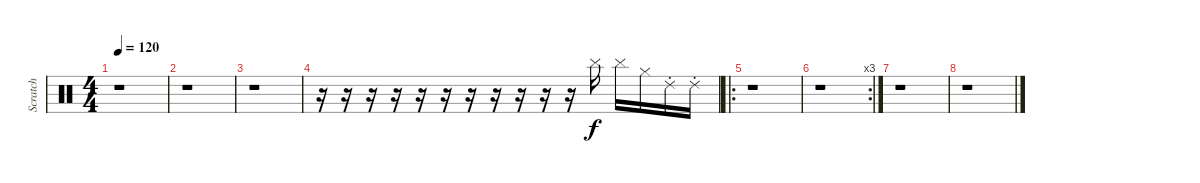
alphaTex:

\track ("Scratch" "Scratch") {instrument percussion}
\staff {score}
\articulation defaults
\ts (4 4)
\tempo 120
\clef neutral
\ks c
r.1{dy f} |
r.1 |
r.1 |
r.16 r.16 r.16 r.16 r.16 r.16 r.16 r.16 r.16 r.16 r.16 "Cymbal (hit)".16 "Cymbal (hit)".16 "Hi-Hat (closed)".16 "Ride (choke) 2".16 "Ride (choke) 2".16 |
\ro
r.1 |
\rc 3
r.1 |
r.1 |
r.1
